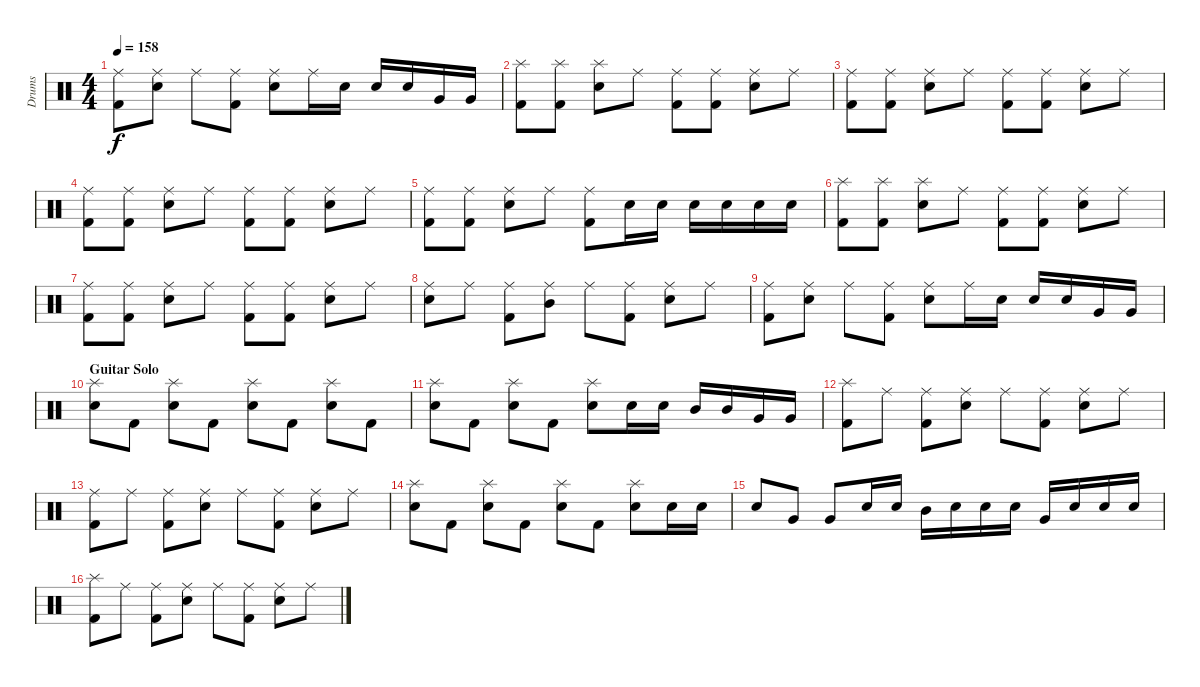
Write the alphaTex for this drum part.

\track ("Drums" "Drums") {instrument percussion}
\staff {score}
\articulation defaults
\ts (4 4)
\tempo 158
\clef neutral
\ks c
("Ride (middle)" "Kick (hit) 2").8{dy f} ("Ride (middle)" "Electric Snare (hit)").8 "Ride (middle)".8 ("Ride (middle)" "Kick (hit) 2").8 ("Ride (middle)" "Electric Snare (hit)").8 "Ride (middle)".16 "Electric Snare (hit)".16 "Electric Snare (hit)".16 "Electric Snare (hit)".16 "Very Low Tom (hit)".16 "Very Low Tom (hit)".16 |
("Splash (hit)" "Kick (hit) 2").8 ("Splash (hit)" "Kick (hit) 2").8 ("Splash (hit)" "Electric Snare (hit)").8 "Ride (middle)".8 ("Ride (middle)" "Kick (hit) 2").8 ("Ride (middle)" "Kick (hit) 2").8 ("Ride (middle)" "Electric Snare (hit)").8 "Ride (middle)".8 |
("Ride (middle)" "Kick (hit) 2").8 ("Ride (middle)" "Kick (hit) 2").8 ("Ride (middle)" "Electric Snare (hit)").8 "Ride (middle)".8 ("Ride (middle)" "Kick (hit) 2").8 ("Ride (middle)" "Kick (hit) 2").8 ("Ride (middle)" "Electric Snare (hit)").8 "Ride (middle)".8 |
("Ride (middle)" "Kick (hit) 2").8 ("Ride (middle)" "Kick (hit) 2").8 ("Ride (middle)" "Electric Snare (hit)").8 "Ride (middle)".8 ("Ride (middle)" "Kick (hit) 2").8 ("Ride (middle)" "Kick (hit) 2").8 ("Ride (middle)" "Electric Snare (hit)").8 "Ride (middle)".8 |
("Ride (middle)" "Kick (hit) 2").8 ("Ride (middle)" "Kick (hit) 2").8 ("Ride (middle)" "Electric Snare (hit)").8 "Ride (middle)".8 ("Ride (middle)" "Kick (hit) 2").8 "Electric Snare (hit)".16 "Electric Snare (hit)".16 "Electric Snare (hit)".16 "Electric Snare (hit)".16 "Electric Snare (hit)".16 "Electric Snare (hit)".16 |
("Splash (hit)" "Kick (hit) 2").8 ("Splash (hit)" "Kick (hit) 2").8 ("Splash (hit)" "Electric Snare (hit)").8 "Ride (middle)".8 ("Ride (middle)" "Kick (hit) 2").8 ("Ride (middle)" "Kick (hit) 2").8 ("Ride (middle)" "Electric Snare (hit)").8 "Ride (middle)".8 |
("Ride (middle)" "Kick (hit) 2").8 ("Ride (middle)" "Kick (hit) 2").8 ("Ride (middle)" "Electric Snare (hit)").8 "Ride (middle)".8 ("Ride (middle)" "Kick (hit) 2").8 ("Ride (middle)" "Kick (hit) 2").8 ("Ride (middle)" "Electric Snare (hit)").8 "Ride (middle)".8 |
("Ride (middle)" "Electric Snare (hit)").8 "Ride (middle)".8 ("Ride (middle)" "Kick (hit) 2").8 ("Ride (middle)" "Mid Tom (hit)").8 "Ride (middle)".8 ("Ride (middle)" "Kick (hit) 2").8 ("Ride (middle)" "Electric Snare (hit)").8 "Ride (middle)".8 |
("Ride (middle)" "Kick (hit) 2").8 ("Ride (middle)" "Electric Snare (hit)").8 "Ride (middle)".8 ("Ride (middle)" "Kick (hit) 2").8 ("Ride (middle)" "Electric Snare (hit)").8 "Ride (middle)".16 "Electric Snare (hit)".16 "Electric Snare (hit)".16 "Electric Snare (hit)".16 "Very Low Tom (hit)".16 "Very Low Tom (hit)".16 |
\section ("" "Guitar Solo")
("Splash (hit)" "Electric Snare (hit)").8 "Kick (hit) 2".8 ("Splash (hit)" "Electric Snare (hit)").8 "Kick (hit) 2".8 ("Splash (hit)" "Electric Snare (hit)").8 "Kick (hit) 2".8 ("Splash (hit)" "Electric Snare (hit)").8 "Kick (hit) 2".8 |
("Splash (hit)" "Electric Snare (hit)").8 "Kick (hit) 2".8 ("Splash (hit)" "Electric Snare (hit)").8 "Kick (hit) 2".8 ("Splash (hit)" "Electric Snare (hit)").8 "Electric Snare (hit)".16 "Electric Snare (hit)".16 "Mid Tom (hit)".16 "Mid Tom (hit)".16 "Very Low Tom (hit)".16 "Very Low Tom (hit)".16 |
("Splash (hit)" "Kick (hit) 2").8 "Ride (middle)".8 ("Ride (middle)" "Kick (hit) 2").8 ("Ride (middle)" "Electric Snare (hit)").8 "Ride (middle)".8 ("Ride (middle)" "Kick (hit) 2").8 ("Ride (middle)" "Electric Snare (hit)").8 "Ride (middle)".8 |
("Ride (middle)" "Kick (hit) 2").8 "Ride (middle)".8 ("Ride (middle)" "Kick (hit) 2").8 ("Ride (middle)" "Electric Snare (hit)").8 "Ride (middle)".8 ("Ride (middle)" "Kick (hit) 2").8 ("Ride (middle)" "Electric Snare (hit)").8 "Ride (middle)".8 |
("Splash (hit)" "Electric Snare (hit)").8 "Kick (hit) 2".8 ("Splash (hit)" "Electric Snare (hit)").8 "Kick (hit) 2".8 ("Splash (hit)" "Electric Snare (hit)").8 "Kick (hit) 2".8 ("Splash (hit)" "Electric Snare (hit)").8 "Electric Snare (hit)".16 "Electric Snare (hit)".16 |
"Electric Snare (hit)".8 "Very Low Tom (hit)".8 "Very Low Tom (hit)".8 "Electric Snare (hit)".16 "Electric Snare (hit)".16 "Mid Tom (hit)".16 "Electric Snare (hit)".16 "Electric Snare (hit)".16 "Electric Snare (hit)".16 "Very Low Tom (hit)".16 "Electric Snare (hit)".16 "Electric Snare (hit)".16 "Electric Snare (hit)".16 |
("Splash (hit)" "Kick (hit) 2").8 "Ride (middle)".8 ("Ride (middle)" "Kick (hit) 2").8 ("Ride (middle)" "Electric Snare (hit)").8 "Ride (middle)".8 ("Ride (middle)" "Kick (hit) 2").8 ("Ride (middle)" "Electric Snare (hit)").8 "Ride (middle)".8
